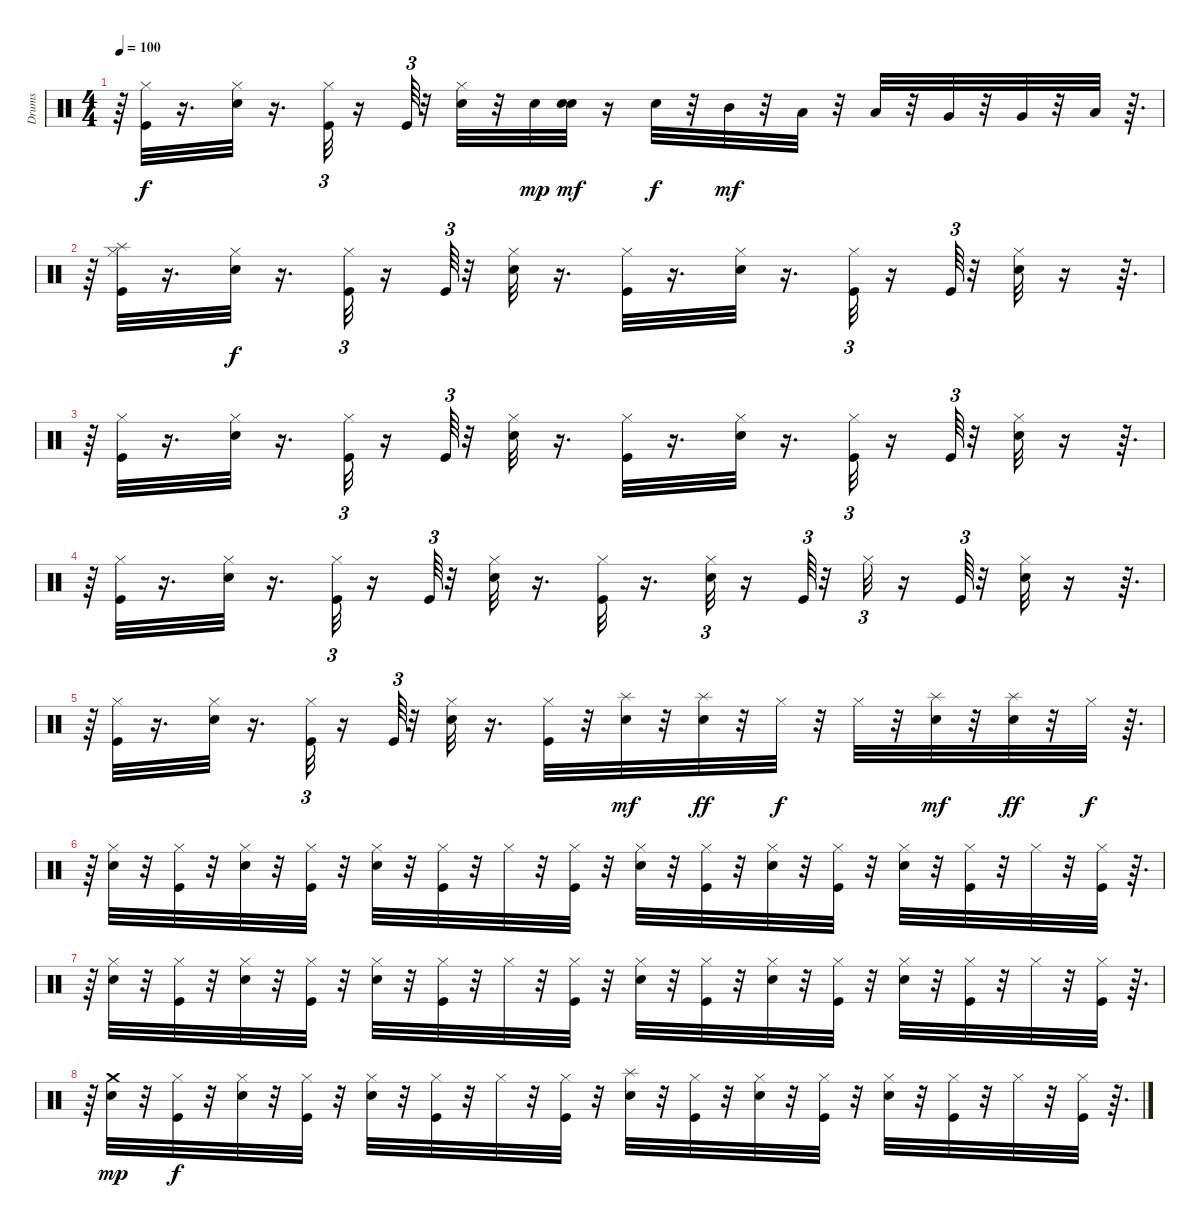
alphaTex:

\track ("Drums" "Drums") {instrument percussion}
\staff {score}
\articulation defaults
\ts (4 4)
\tempo 100
\clef neutral
\ks c
r.64{dy f} ("Kick (hit)" "Hi-Hat (closed)").32 r.16{d} ("Snare (hit) 2" "Hi-Hat (closed)").32 r.16{d} ("Kick (hit)" "Hi-Hat (closed)").32{tu (3 2)} r.16 "Kick (hit)".64{tu (3 2)} r.32 ("Snare (hit) 2" "Hi-Hat (closed)").32 r.32 "Snare (hit) 2".32{dy mp} ("Snare (hit) 2" "Snare (hit) 2").32{dy mf} r.16 "Snare (hit) 2".32{dy f} r.32 "Mid Tom (hit)".32{dy mf} r.32 "Low Tom (hit)".32 r.32 "Low Tom (hit)".32 r.32 "Very Low Tom (hit)".32 r.32 "Very Low Tom (hit)".32 r.32 "Low Floor Tom (hit)".32 r.64{d} |
r.64 ("Kick (hit)" "Hi-Hat (closed)" "Splash (hit)").32 r.16{d} ("Snare (hit) 2" "Hi-Hat (closed)").32{dy f} r.16{d} ("Kick (hit)" "Hi-Hat (closed)").32{tu (3 2)} r.16 "Kick (hit)".64{tu (3 2)} r.32 ("Snare (hit) 2" "Hi-Hat (closed)").32 r.16{d} ("Kick (hit)" "Hi-Hat (closed)").32 r.16{d} ("Snare (hit) 2" "Hi-Hat (closed)").32 r.16{d} ("Kick (hit)" "Hi-Hat (closed)").32{tu (3 2)} r.16 "Kick (hit)".64{tu (3 2)} r.32 ("Snare (hit) 2" "Hi-Hat (closed)").32 r.16 r.64{d} |
r.64 ("Kick (hit)" "Hi-Hat (closed)").32 r.16{d} ("Snare (hit) 2" "Hi-Hat (closed)").32 r.16{d} ("Kick (hit)" "Hi-Hat (closed)").32{tu (3 2)} r.16 "Kick (hit)".64{tu (3 2)} r.32 ("Snare (hit) 2" "Hi-Hat (closed)").32 r.16{d} ("Kick (hit)" "Hi-Hat (closed)").32 r.16{d} ("Snare (hit) 2" "Hi-Hat (closed)").32 r.16{d} ("Kick (hit)" "Hi-Hat (closed)").32{tu (3 2)} r.16 "Kick (hit)".64{tu (3 2)} r.32 ("Snare (hit) 2" "Hi-Hat (closed)").32 r.16 r.64{d} |
r.64 ("Kick (hit)" "Hi-Hat (closed)").32 r.16{d} ("Snare (hit) 2" "Hi-Hat (closed)").32 r.16{d} ("Kick (hit)" "Hi-Hat (closed)").32{tu (3 2)} r.16 "Kick (hit)".64{tu (3 2)} r.32 ("Snare (hit) 2" "Hi-Hat (closed)").32 r.16{d} ("Kick (hit)" "Hi-Hat (closed)").32 r.16{d} ("Snare (hit) 2" "Hi-Hat (closed)").32{tu (3 2)} r.16 "Kick (hit)".64{tu (3 2)} r.32 "Hi-Hat (closed)".32{tu (3 2)} r.16 "Kick (hit)".64{tu (3 2)} r.32 ("Snare (hit) 2" "Hi-Hat (closed)").32 r.16 r.64{d} |
r.64 ("Kick (hit)" "Hi-Hat (closed)").32 r.16{d} ("Snare (hit) 2" "Hi-Hat (closed)").32 r.16{d} ("Kick (hit)" "Hi-Hat (closed)").32{tu (3 2)} r.16 "Kick (hit)".64{tu (3 2)} r.32 ("Snare (hit) 2" "Hi-Hat (closed)").32 r.16{d} ("Kick (hit)" "Hi-Hat (closed)").32 r.32 ("Snare (hit) 2" "Splash (hit)").32{dy mf} r.32 ("Snare (hit) 2" "Splash (hit)").32{dy ff} r.32 "Hi-Hat (closed)".32{dy f} r.32 "Hi-Hat (closed)".32 r.32 ("Snare (hit) 2" "Splash (hit)").32{dy mf} r.32 ("Snare (hit) 2" "Splash (hit)").32{dy ff} r.32 "Hi-Hat (closed)".32{dy f} r.64{d} |
r.64 ("Snare (hit) 2" "Hi-Hat (closed)").32 r.32 ("Kick (hit)" "Hi-Hat (closed)").32 r.32 ("Snare (hit) 2" "Hi-Hat (closed)").32 r.32 ("Kick (hit)" "Hi-Hat (closed)").32 r.32 ("Snare (hit) 2" "Hi-Hat (closed)").32 r.32 ("Kick (hit)" "Hi-Hat (closed)").32 r.32 "Hi-Hat (closed)".32 r.32 ("Kick (hit)" "Hi-Hat (closed)").32 r.32 ("Snare (hit) 2" "Hi-Hat (closed)").32 r.32 ("Kick (hit)" "Hi-Hat (closed)").32 r.32 ("Snare (hit) 2" "Hi-Hat (closed)").32 r.32 ("Kick (hit)" "Hi-Hat (closed)").32 r.32 ("Snare (hit) 2" "Hi-Hat (closed)").32 r.32 ("Kick (hit)" "Hi-Hat (closed)").32 r.32 "Hi-Hat (closed)".32 r.32 ("Kick (hit)" "Hi-Hat (closed)").32 r.64{d} |
r.64 ("Snare (hit) 2" "Hi-Hat (closed)").32 r.32 ("Kick (hit)" "Hi-Hat (closed)").32 r.32 ("Snare (hit) 2" "Hi-Hat (closed)").32 r.32 ("Kick (hit)" "Hi-Hat (closed)").32 r.32 ("Snare (hit) 2" "Hi-Hat (closed)").32 r.32 ("Kick (hit)" "Hi-Hat (closed)").32 r.32 "Hi-Hat (closed)".32 r.32 ("Kick (hit)" "Hi-Hat (closed)").32 r.32 ("Snare (hit) 2" "Hi-Hat (closed)").32 r.32 ("Kick (hit)" "Hi-Hat (closed)").32 r.32 ("Snare (hit) 2" "Hi-Hat (closed)").32 r.32 ("Kick (hit)" "Hi-Hat (closed)").32 r.32 ("Snare (hit) 2" "Hi-Hat (closed)").32 r.32 ("Kick (hit)" "Hi-Hat (closed)").32 r.32 "Hi-Hat (closed)".32 r.32 ("Kick (hit)" "Hi-Hat (closed)").32 r.64{d} |
r.64 ("Snare (hit) 2" "Crash medium (hit)").32{dy mp} r.32 ("Kick (hit)" "Hi-Hat (closed)").32{dy f} r.32 ("Snare (hit) 2" "Hi-Hat (closed)").32 r.32 ("Kick (hit)" "Hi-Hat (closed)").32 r.32 ("Snare (hit) 2" "Hi-Hat (closed)").32 r.32 ("Kick (hit)" "Hi-Hat (closed)").32 r.32 "Hi-Hat (closed)".32 r.32 ("Kick (hit)" "Hi-Hat (closed)").32 r.32 ("Snare (hit) 2" "Splash (hit)").32 r.32 ("Kick (hit)" "Hi-Hat (closed)").32 r.32 ("Snare (hit) 2" "Hi-Hat (closed)").32 r.32 ("Kick (hit)" "Hi-Hat (closed)").32 r.32 ("Snare (hit) 2" "Hi-Hat (closed)").32 r.32 ("Kick (hit)" "Hi-Hat (closed)").32 r.32 "Hi-Hat (closed)".32 r.32 ("Kick (hit)" "Hi-Hat (closed)").32 r.64{d}
